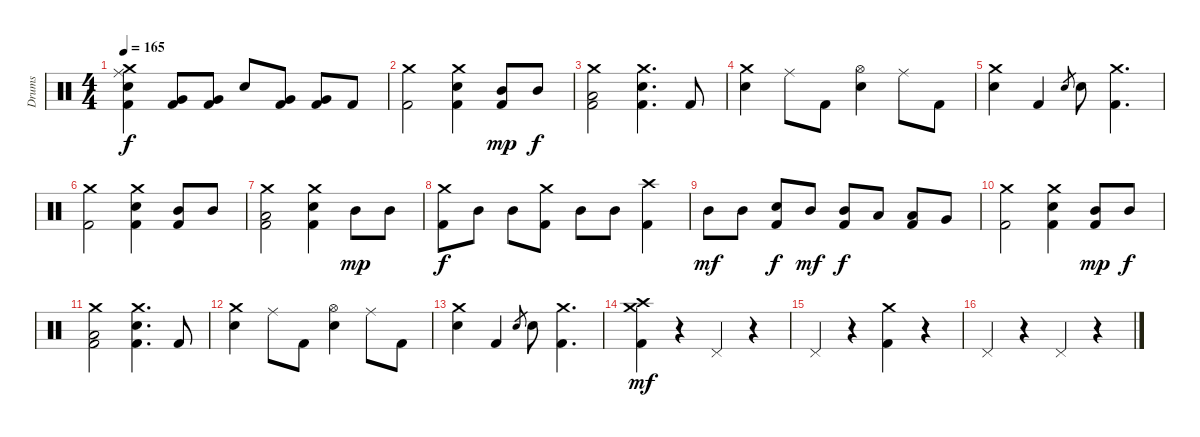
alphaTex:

\track ("Drums" "Drums") {instrument percussion}
\staff {score}
\articulation defaults
\ts (4 4)
\tempo 165
\clef neutral
\ks c
("Crash medium (hit)"{t} "Ride (middle)" "Electric Snare (hit)"{t} "Kick (hit) 2").4{dy f} ("Very Low Tom (hit)" "Kick (hit) 2").8 ("Very Low Tom (hit)" "Kick (hit) 2").8 "Electric Snare (hit)".8 ("Very Low Tom (hit)" "Kick (hit) 2").8 ("Very Low Tom (hit)" "Kick (hit) 2").8 "Kick (hit) 2".8 |
("Crash medium (hit)" "Kick (hit) 2").2 ("Crash medium (hit)" "Electric Snare (hit)" "Kick (hit) 2").4 ("Mid Tom (hit)" "Kick (hit) 2").8{dy mp} "Mid Tom (hit)".8{dy f} |
("Crash medium (hit)" "Low Tom (hit)" "Kick (hit) 2").2 ("Crash medium (hit)" "Electric Snare (hit)" "Kick (hit) 2").4{d} "Kick (hit) 2".8 |
("Crash medium (hit)" "Electric Snare (hit)").4 "Ride (middle)".8 "Kick (hit) 2".8 ("Hi-Hat (open)" "Electric Snare (hit)").4 "Ride (middle)".8 "Kick (hit) 2".8 |
("Crash medium (hit)" "Electric Snare (hit)").4 "Kick (hit) 2".4 "Electric Snare (hit)".8{gr} "Electric Snare (hit)".8 ("Crash medium (hit)" "Kick (hit) 2").4{d} |
("Crash medium (hit)" "Kick (hit) 2").2 ("Crash medium (hit)" "Electric Snare (hit)" "Kick (hit) 2").4 ("Mid Tom (hit)" "Kick (hit) 2").8 "Mid Tom (hit)".8 |
("Crash medium (hit)" "Low Tom (hit)" "Kick (hit) 2").2 ("Crash medium (hit)" "Electric Snare (hit)" "Kick (hit) 2").4 "Mid Tom (hit)".8{dy mp} "Mid Tom (hit)".8 |
("Crash medium (hit)" "Kick (hit) 2").8{dy f} "Mid Tom (hit)".8 "Mid Tom (hit)".8 ("Crash medium (hit)" "Kick (hit) 2").8 "Mid Tom (hit)".8 "Mid Tom (hit)".8 ("Crash high (hit)" "Kick (hit) 2").4 |
"Mid Tom (hit)".8{dy mf} "Mid Tom (hit)".8 ("Electric Snare (hit)" "Kick (hit) 2").8{dy f} "Mid Tom (hit)".8{dy mf} ("Mid Tom (hit)" "Kick (hit) 2").8{dy f} "Low Tom (hit)".8 ("Low Tom (hit)" "Kick (hit) 2").8 "Very Low Tom (hit)".8 |
("Crash medium (hit)" "Kick (hit) 2").2 ("Crash medium (hit)" "Electric Snare (hit)" "Kick (hit) 2").4 ("Mid Tom (hit)" "Kick (hit) 2").8{dy mp} "Mid Tom (hit)".8{dy f} |
("Crash medium (hit)" "Low Tom (hit)" "Kick (hit) 2").2 ("Crash medium (hit)" "Electric Snare (hit)" "Kick (hit) 2").4{d} "Kick (hit) 2".8 |
("Crash medium (hit)" "Electric Snare (hit)").4 "Ride (middle)".8 "Kick (hit) 2".8 ("Hi-Hat (open)" "Electric Snare (hit)").4 "Ride (middle)".8 "Kick (hit) 2".8 |
("Crash medium (hit)" "Electric Snare (hit)").4 "Kick (hit) 2".4 "Electric Snare (hit)".8{gr} "Electric Snare (hit)".8 ("Crash medium (hit)" "Kick (hit) 2").4{d} |
("Crash medium (hit)" "Crash high (hit)" "Kick (hit) 2").4{dy mf} r.4 "Pedal Hi-Hat (hit)".4 r.4 |
"Pedal Hi-Hat (hit)".4 r.4 ("Crash medium (hit)" "Kick (hit) 2").4 r.4 |
"Pedal Hi-Hat (hit)".4 r.4 "Pedal Hi-Hat (hit)".4 r.4
